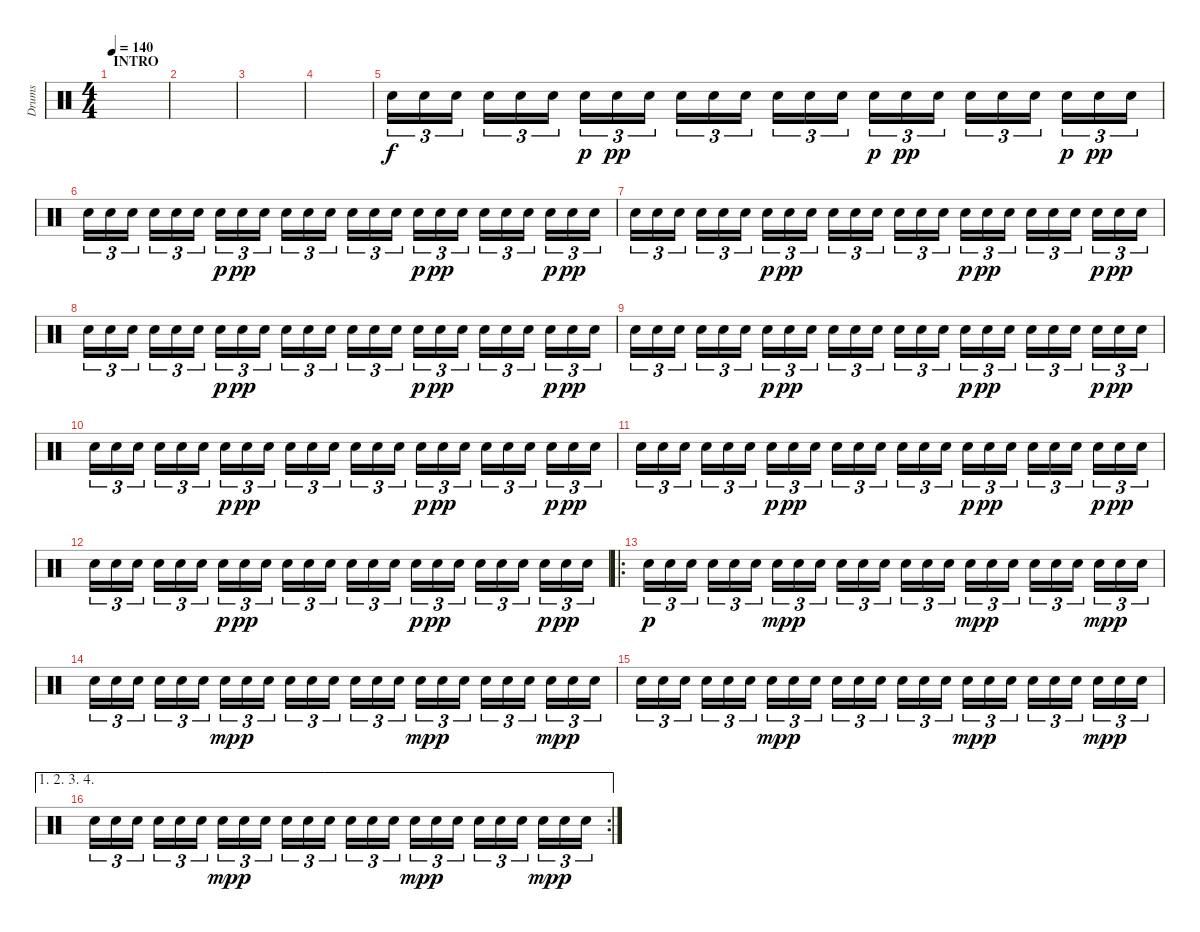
\track ("Drums" "Drums") {instrument percussion}
\staff {score}
\articulation defaults
\ts (4 4)
\section ("" "INTRO")
\tempo 140
\clef neutral
\ks c
|
|
|
|
"Snare (hit) 2".16{tu (3 2)} "Snare (hit) 2".16{tu (3 2)} "Snare (hit) 2".16{tu (3 2)} "Snare (hit) 2".16{tu (3 2)} "Snare (hit) 2".16{tu (3 2)} "Snare (hit) 2".16{tu (3 2)} "Snare (hit) 2".16{tu (3 2) dy p} "Snare (hit) 2".16{tu (3 2) dy pp} "Snare (hit) 2".16{tu (3 2)} "Snare (hit) 2".16{tu (3 2)} "Snare (hit) 2".16{tu (3 2)} "Snare (hit) 2".16{tu (3 2)} "Snare (hit) 2".16{tu (3 2)} "Snare (hit) 2".16{tu (3 2)} "Snare (hit) 2".16{tu (3 2)} "Snare (hit) 2".16{tu (3 2) dy p} "Snare (hit) 2".16{tu (3 2) dy pp} "Snare (hit) 2".16{tu (3 2)} "Snare (hit) 2".16{tu (3 2)} "Snare (hit) 2".16{tu (3 2)} "Snare (hit) 2".16{tu (3 2)} "Snare (hit) 2".16{tu (3 2) dy p} "Snare (hit) 2".16{tu (3 2) dy pp} "Snare (hit) 2".16{tu (3 2)} |
"Snare (hit) 2".16{tu (3 2)} "Snare (hit) 2".16{tu (3 2)} "Snare (hit) 2".16{tu (3 2)} "Snare (hit) 2".16{tu (3 2)} "Snare (hit) 2".16{tu (3 2)} "Snare (hit) 2".16{tu (3 2)} "Snare (hit) 2".16{tu (3 2) dy p} "Snare (hit) 2".16{tu (3 2) dy pp} "Snare (hit) 2".16{tu (3 2)} "Snare (hit) 2".16{tu (3 2)} "Snare (hit) 2".16{tu (3 2)} "Snare (hit) 2".16{tu (3 2)} "Snare (hit) 2".16{tu (3 2)} "Snare (hit) 2".16{tu (3 2)} "Snare (hit) 2".16{tu (3 2)} "Snare (hit) 2".16{tu (3 2) dy p} "Snare (hit) 2".16{tu (3 2) dy pp} "Snare (hit) 2".16{tu (3 2)} "Snare (hit) 2".16{tu (3 2)} "Snare (hit) 2".16{tu (3 2)} "Snare (hit) 2".16{tu (3 2)} "Snare (hit) 2".16{tu (3 2) dy p} "Snare (hit) 2".16{tu (3 2) dy pp} "Snare (hit) 2".16{tu (3 2)} |
"Snare (hit) 2".16{tu (3 2)} "Snare (hit) 2".16{tu (3 2)} "Snare (hit) 2".16{tu (3 2)} "Snare (hit) 2".16{tu (3 2)} "Snare (hit) 2".16{tu (3 2)} "Snare (hit) 2".16{tu (3 2)} "Snare (hit) 2".16{tu (3 2) dy p} "Snare (hit) 2".16{tu (3 2) dy pp} "Snare (hit) 2".16{tu (3 2)} "Snare (hit) 2".16{tu (3 2)} "Snare (hit) 2".16{tu (3 2)} "Snare (hit) 2".16{tu (3 2)} "Snare (hit) 2".16{tu (3 2)} "Snare (hit) 2".16{tu (3 2)} "Snare (hit) 2".16{tu (3 2)} "Snare (hit) 2".16{tu (3 2) dy p} "Snare (hit) 2".16{tu (3 2) dy pp} "Snare (hit) 2".16{tu (3 2)} "Snare (hit) 2".16{tu (3 2)} "Snare (hit) 2".16{tu (3 2)} "Snare (hit) 2".16{tu (3 2)} "Snare (hit) 2".16{tu (3 2) dy p} "Snare (hit) 2".16{tu (3 2) dy pp} "Snare (hit) 2".16{tu (3 2)} |
"Snare (hit) 2".16{tu (3 2)} "Snare (hit) 2".16{tu (3 2)} "Snare (hit) 2".16{tu (3 2)} "Snare (hit) 2".16{tu (3 2)} "Snare (hit) 2".16{tu (3 2)} "Snare (hit) 2".16{tu (3 2)} "Snare (hit) 2".16{tu (3 2) dy p} "Snare (hit) 2".16{tu (3 2) dy pp} "Snare (hit) 2".16{tu (3 2)} "Snare (hit) 2".16{tu (3 2)} "Snare (hit) 2".16{tu (3 2)} "Snare (hit) 2".16{tu (3 2)} "Snare (hit) 2".16{tu (3 2)} "Snare (hit) 2".16{tu (3 2)} "Snare (hit) 2".16{tu (3 2)} "Snare (hit) 2".16{tu (3 2) dy p} "Snare (hit) 2".16{tu (3 2) dy pp} "Snare (hit) 2".16{tu (3 2)} "Snare (hit) 2".16{tu (3 2)} "Snare (hit) 2".16{tu (3 2)} "Snare (hit) 2".16{tu (3 2)} "Snare (hit) 2".16{tu (3 2) dy p} "Snare (hit) 2".16{tu (3 2) dy pp} "Snare (hit) 2".16{tu (3 2)} |
"Snare (hit) 2".16{tu (3 2)} "Snare (hit) 2".16{tu (3 2)} "Snare (hit) 2".16{tu (3 2)} "Snare (hit) 2".16{tu (3 2)} "Snare (hit) 2".16{tu (3 2)} "Snare (hit) 2".16{tu (3 2)} "Snare (hit) 2".16{tu (3 2) dy p} "Snare (hit) 2".16{tu (3 2) dy pp} "Snare (hit) 2".16{tu (3 2)} "Snare (hit) 2".16{tu (3 2)} "Snare (hit) 2".16{tu (3 2)} "Snare (hit) 2".16{tu (3 2)} "Snare (hit) 2".16{tu (3 2)} "Snare (hit) 2".16{tu (3 2)} "Snare (hit) 2".16{tu (3 2)} "Snare (hit) 2".16{tu (3 2) dy p} "Snare (hit) 2".16{tu (3 2) dy pp} "Snare (hit) 2".16{tu (3 2)} "Snare (hit) 2".16{tu (3 2)} "Snare (hit) 2".16{tu (3 2)} "Snare (hit) 2".16{tu (3 2)} "Snare (hit) 2".16{tu (3 2) dy p} "Snare (hit) 2".16{tu (3 2) dy pp} "Snare (hit) 2".16{tu (3 2)} |
"Snare (hit) 2".16{tu (3 2)} "Snare (hit) 2".16{tu (3 2)} "Snare (hit) 2".16{tu (3 2)} "Snare (hit) 2".16{tu (3 2)} "Snare (hit) 2".16{tu (3 2)} "Snare (hit) 2".16{tu (3 2)} "Snare (hit) 2".16{tu (3 2) dy p} "Snare (hit) 2".16{tu (3 2) dy pp} "Snare (hit) 2".16{tu (3 2)} "Snare (hit) 2".16{tu (3 2)} "Snare (hit) 2".16{tu (3 2)} "Snare (hit) 2".16{tu (3 2)} "Snare (hit) 2".16{tu (3 2)} "Snare (hit) 2".16{tu (3 2)} "Snare (hit) 2".16{tu (3 2)} "Snare (hit) 2".16{tu (3 2) dy p} "Snare (hit) 2".16{tu (3 2) dy pp} "Snare (hit) 2".16{tu (3 2)} "Snare (hit) 2".16{tu (3 2)} "Snare (hit) 2".16{tu (3 2)} "Snare (hit) 2".16{tu (3 2)} "Snare (hit) 2".16{tu (3 2) dy p} "Snare (hit) 2".16{tu (3 2) dy pp} "Snare (hit) 2".16{tu (3 2)} |
"Snare (hit) 2".16{tu (3 2)} "Snare (hit) 2".16{tu (3 2)} "Snare (hit) 2".16{tu (3 2)} "Snare (hit) 2".16{tu (3 2)} "Snare (hit) 2".16{tu (3 2)} "Snare (hit) 2".16{tu (3 2)} "Snare (hit) 2".16{tu (3 2) dy p} "Snare (hit) 2".16{tu (3 2) dy pp} "Snare (hit) 2".16{tu (3 2)} "Snare (hit) 2".16{tu (3 2)} "Snare (hit) 2".16{tu (3 2)} "Snare (hit) 2".16{tu (3 2)} "Snare (hit) 2".16{tu (3 2)} "Snare (hit) 2".16{tu (3 2)} "Snare (hit) 2".16{tu (3 2)} "Snare (hit) 2".16{tu (3 2) dy p} "Snare (hit) 2".16{tu (3 2) dy pp} "Snare (hit) 2".16{tu (3 2)} "Snare (hit) 2".16{tu (3 2)} "Snare (hit) 2".16{tu (3 2)} "Snare (hit) 2".16{tu (3 2)} "Snare (hit) 2".16{tu (3 2) dy p} "Snare (hit) 2".16{tu (3 2) dy pp} "Snare (hit) 2".16{tu (3 2)} |
"Snare (hit) 2".16{tu (3 2)} "Snare (hit) 2".16{tu (3 2)} "Snare (hit) 2".16{tu (3 2)} "Snare (hit) 2".16{tu (3 2)} "Snare (hit) 2".16{tu (3 2)} "Snare (hit) 2".16{tu (3 2)} "Snare (hit) 2".16{tu (3 2) dy p} "Snare (hit) 2".16{tu (3 2) dy pp} "Snare (hit) 2".16{tu (3 2)} "Snare (hit) 2".16{tu (3 2)} "Snare (hit) 2".16{tu (3 2)} "Snare (hit) 2".16{tu (3 2)} "Snare (hit) 2".16{tu (3 2)} "Snare (hit) 2".16{tu (3 2)} "Snare (hit) 2".16{tu (3 2)} "Snare (hit) 2".16{tu (3 2) dy p} "Snare (hit) 2".16{tu (3 2) dy pp} "Snare (hit) 2".16{tu (3 2)} "Snare (hit) 2".16{tu (3 2)} "Snare (hit) 2".16{tu (3 2)} "Snare (hit) 2".16{tu (3 2)} "Snare (hit) 2".16{tu (3 2) dy p} "Snare (hit) 2".16{tu (3 2) dy pp} "Snare (hit) 2".16{tu (3 2)} |
\ro "Snare (hit) 2".16{tu (3 2) dy p} "Snare (hit) 2".16{tu (3 2)} "Snare (hit) 2".16{tu (3 2)} "Snare (hit) 2".16{tu (3 2)} "Snare (hit) 2".16{tu (3 2)} "Snare (hit) 2".16{tu (3 2)} "Snare (hit) 2".16{tu (3 2) dy mp} "Snare (hit) 2".16{tu (3 2) dy p} "Snare (hit) 2".16{tu (3 2)} "Snare (hit) 2".16{tu (3 2)} "Snare (hit) 2".16{tu (3 2)} "Snare (hit) 2".16{tu (3 2)} "Snare (hit) 2".16{tu (3 2)} "Snare (hit) 2".16{tu (3 2)} "Snare (hit) 2".16{tu (3 2)} "Snare (hit) 2".16{tu (3 2) dy mp} "Snare (hit) 2".16{tu (3 2) dy p} "Snare (hit) 2".16{tu (3 2)} "Snare (hit) 2".16{tu (3 2)} "Snare (hit) 2".16{tu (3 2)} "Snare (hit) 2".16{tu (3 2)} "Snare (hit) 2".16{tu (3 2) dy mp} "Snare (hit) 2".16{tu (3 2) dy p} "Snare (hit) 2".16{tu (3 2)}
|
"Snare (hit) 2".16{tu (3 2)} "Snare (hit) 2".16{tu (3 2)} "Snare (hit) 2".16{tu (3 2)} "Snare (hit) 2".16{tu (3 2)} "Snare (hit) 2".16{tu (3 2)} "Snare (hit) 2".16{tu (3 2)} "Snare (hit) 2".16{tu (3 2) dy mp} "Snare (hit) 2".16{tu (3 2) dy p} "Snare (hit) 2".16{tu (3 2)} "Snare (hit) 2".16{tu (3 2)} "Snare (hit) 2".16{tu (3 2)} "Snare (hit) 2".16{tu (3 2)} "Snare (hit) 2".16{tu (3 2)} "Snare (hit) 2".16{tu (3 2)} "Snare (hit) 2".16{tu (3 2)} "Snare (hit) 2".16{tu (3 2) dy mp} "Snare (hit) 2".16{tu (3 2) dy p} "Snare (hit) 2".16{tu (3 2)} "Snare (hit) 2".16{tu (3 2)} "Snare (hit) 2".16{tu (3 2)} "Snare (hit) 2".16{tu (3 2)} "Snare (hit) 2".16{tu (3 2) dy mp} "Snare (hit) 2".16{tu (3 2) dy p} "Snare (hit) 2".16{tu (3 2)} |
"Snare (hit) 2".16{tu (3 2)} "Snare (hit) 2".16{tu (3 2)} "Snare (hit) 2".16{tu (3 2)} "Snare (hit) 2".16{tu (3 2)} "Snare (hit) 2".16{tu (3 2)} "Snare (hit) 2".16{tu (3 2)} "Snare (hit) 2".16{tu (3 2) dy mp} "Snare (hit) 2".16{tu (3 2) dy p} "Snare (hit) 2".16{tu (3 2)} "Snare (hit) 2".16{tu (3 2)} "Snare (hit) 2".16{tu (3 2)} "Snare (hit) 2".16{tu (3 2)} "Snare (hit) 2".16{tu (3 2)} "Snare (hit) 2".16{tu (3 2)} "Snare (hit) 2".16{tu (3 2)} "Snare (hit) 2".16{tu (3 2) dy mp} "Snare (hit) 2".16{tu (3 2) dy p} "Snare (hit) 2".16{tu (3 2)} "Snare (hit) 2".16{tu (3 2)} "Snare (hit) 2".16{tu (3 2)} "Snare (hit) 2".16{tu (3 2)} "Snare (hit) 2".16{tu (3 2) dy mp} "Snare (hit) 2".16{tu (3 2) dy p} "Snare (hit) 2".16{tu (3 2)} |
\ae (1 2 3 4)
\rc 2 "Snare (hit) 2".16{tu (3 2)} "Snare (hit) 2".16{tu (3 2)} "Snare (hit) 2".16{tu (3 2)} "Snare (hit) 2".16{tu (3 2)} "Snare (hit) 2".16{tu (3 2)} "Snare (hit) 2".16{tu (3 2)} "Snare (hit) 2".16{tu (3 2) dy mp} "Snare (hit) 2".16{tu (3 2) dy p} "Snare (hit) 2".16{tu (3 2)} "Snare (hit) 2".16{tu (3 2)} "Snare (hit) 2".16{tu (3 2)} "Snare (hit) 2".16{tu (3 2)} "Snare (hit) 2".16{tu (3 2)} "Snare (hit) 2".16{tu (3 2)} "Snare (hit) 2".16{tu (3 2)} "Snare (hit) 2".16{tu (3 2) dy mp} "Snare (hit) 2".16{tu (3 2) dy p} "Snare (hit) 2".16{tu (3 2)} "Snare (hit) 2".16{tu (3 2)} "Snare (hit) 2".16{tu (3 2)} "Snare (hit) 2".16{tu (3 2)} "Snare (hit) 2".16{tu (3 2) dy mp} "Snare (hit) 2".16{tu (3 2) dy p} "Snare (hit) 2".16{tu (3 2)}
